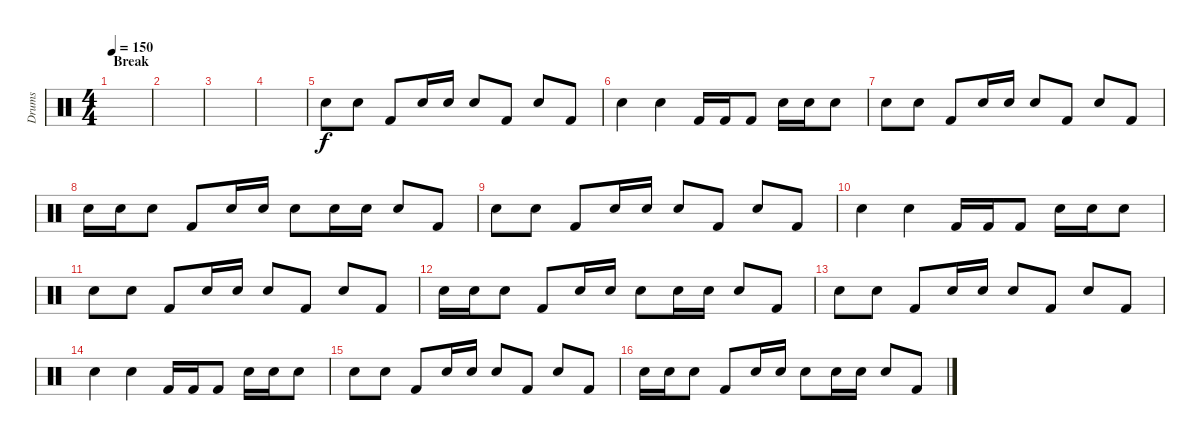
\track ("Drums" "Drums") {instrument percussion}
\staff {score}
\articulation defaults
\ts (4 4)
\section ("" "Break")
\tempo 150
\clef neutral
\ks c
|
|
|
|
"Electric Snare (hit)".8 "Electric Snare (hit)".8 "Kick (hit) 2".8 "Electric Snare (hit)".16 "Electric Snare (hit)".16 "Electric Snare (hit)".8 "Kick (hit) 2".8 "Electric Snare (hit)".8 "Kick (hit) 2".8 |
"Electric Snare (hit)".4 "Electric Snare (hit)".4 "Kick (hit) 2".16 "Kick (hit) 2".16 "Kick (hit) 2".8 "Electric Snare (hit)".16 "Electric Snare (hit)".16 "Electric Snare (hit)".8 |
"Electric Snare (hit)".8 "Electric Snare (hit)".8 "Kick (hit) 2".8 "Electric Snare (hit)".16 "Electric Snare (hit)".16 "Electric Snare (hit)".8 "Kick (hit) 2".8 "Electric Snare (hit)".8 "Kick (hit) 2".8 |
"Electric Snare (hit)".16 "Electric Snare (hit)".16 "Electric Snare (hit)".8 "Kick (hit) 2".8 "Electric Snare (hit)".16 "Electric Snare (hit)".16 "Electric Snare (hit)".8 "Electric Snare (hit)".16 "Electric Snare (hit)".16 "Electric Snare (hit)".8 "Kick (hit) 2".8 |
"Electric Snare (hit)".8 "Electric Snare (hit)".8 "Kick (hit) 2".8 "Electric Snare (hit)".16 "Electric Snare (hit)".16 "Electric Snare (hit)".8 "Kick (hit) 2".8 "Electric Snare (hit)".8 "Kick (hit) 2".8 |
"Electric Snare (hit)".4 "Electric Snare (hit)".4 "Kick (hit) 2".16 "Kick (hit) 2".16 "Kick (hit) 2".8 "Electric Snare (hit)".16 "Electric Snare (hit)".16 "Electric Snare (hit)".8 |
"Electric Snare (hit)".8 "Electric Snare (hit)".8 "Kick (hit) 2".8 "Electric Snare (hit)".16 "Electric Snare (hit)".16 "Electric Snare (hit)".8 "Kick (hit) 2".8 "Electric Snare (hit)".8 "Kick (hit) 2".8 |
"Electric Snare (hit)".16 "Electric Snare (hit)".16 "Electric Snare (hit)".8 "Kick (hit) 2".8 "Electric Snare (hit)".16 "Electric Snare (hit)".16 "Electric Snare (hit)".8 "Electric Snare (hit)".16 "Electric Snare (hit)".16 "Electric Snare (hit)".8 "Kick (hit) 2".8 |
"Electric Snare (hit)".8 "Electric Snare (hit)".8 "Kick (hit) 2".8 "Electric Snare (hit)".16 "Electric Snare (hit)".16 "Electric Snare (hit)".8 "Kick (hit) 2".8 "Electric Snare (hit)".8 "Kick (hit) 2".8 |
"Electric Snare (hit)".4 "Electric Snare (hit)".4 "Kick (hit) 2".16 "Kick (hit) 2".16 "Kick (hit) 2".8 "Electric Snare (hit)".16 "Electric Snare (hit)".16 "Electric Snare (hit)".8 |
"Electric Snare (hit)".8 "Electric Snare (hit)".8 "Kick (hit) 2".8 "Electric Snare (hit)".16 "Electric Snare (hit)".16 "Electric Snare (hit)".8 "Kick (hit) 2".8 "Electric Snare (hit)".8 "Kick (hit) 2".8 |
"Electric Snare (hit)".16 "Electric Snare (hit)".16 "Electric Snare (hit)".8 "Kick (hit) 2".8 "Electric Snare (hit)".16 "Electric Snare (hit)".16 "Electric Snare (hit)".8 "Electric Snare (hit)".16 "Electric Snare (hit)".16 "Electric Snare (hit)".8 "Kick (hit) 2".8
